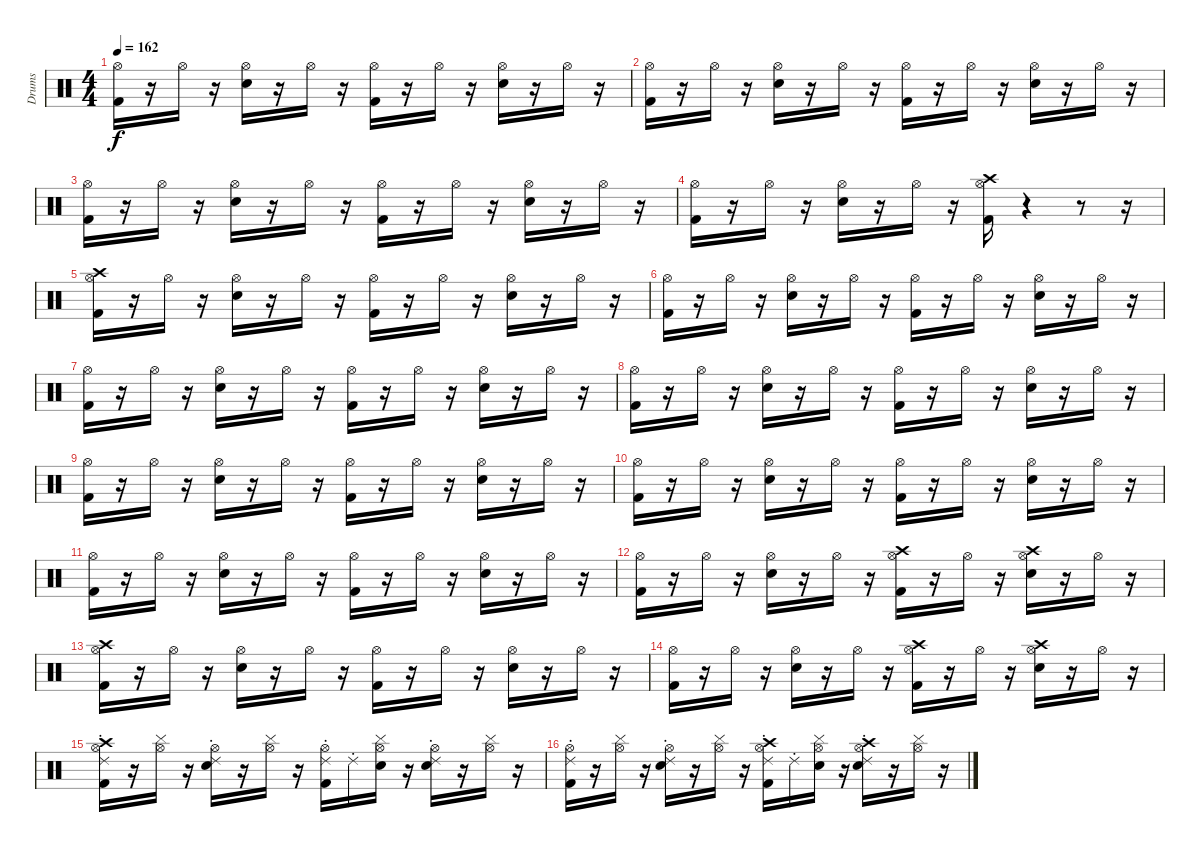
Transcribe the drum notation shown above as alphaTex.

\track ("Drums" "Drums") {instrument percussion}
\staff {score}
\articulation defaults
\ts (4 4)
\tempo 162
\clef neutral
\ks c
("Kick (hit) 2" "Hi-Hat (open)").16{dy f} r.16 "Hi-Hat (open)".16 r.16 ("Electric Snare (hit)" "Hi-Hat (open)").16 r.16 "Hi-Hat (open)".16 r.16 ("Hi-Hat (open)" "Kick (hit) 2").16 r.16 "Hi-Hat (open)".16 r.16 ("Hi-Hat (open)" "Electric Snare (hit)").16 r.16 "Hi-Hat (open)".16 r.16 |
("Kick (hit) 2" "Hi-Hat (open)").16 r.16 "Hi-Hat (open)".16 r.16 ("Electric Snare (hit)" "Hi-Hat (open)").16 r.16 "Hi-Hat (open)".16 r.16 ("Hi-Hat (open)" "Kick (hit) 2").16 r.16 "Hi-Hat (open)".16 r.16 ("Hi-Hat (open)" "Electric Snare (hit)").16 r.16 "Hi-Hat (open)".16 r.16 |
("Kick (hit) 2" "Hi-Hat (open)").16 r.16 "Hi-Hat (open)".16 r.16 ("Electric Snare (hit)" "Hi-Hat (open)").16 r.16 "Hi-Hat (open)".16 r.16 ("Hi-Hat (open)" "Kick (hit) 2").16 r.16 "Hi-Hat (open)".16 r.16 ("Hi-Hat (open)" "Electric Snare (hit)").16 r.16 "Hi-Hat (open)".16 r.16 |
("Kick (hit) 2" "Hi-Hat (open)").16 r.16 "Hi-Hat (open)".16 r.16 ("Electric Snare (hit)" "Hi-Hat (open)").16 r.16 "Hi-Hat (open)".16 r.16 ("Hi-Hat (open)" "Kick (hit) 2" "Crash high (hit)").16 r.4 r.8 r.16 |
("Kick (hit) 2" "Hi-Hat (open)" "Crash high (hit)").16 r.16 "Hi-Hat (open)".16 r.16 ("Electric Snare (hit)" "Hi-Hat (open)").16 r.16 "Hi-Hat (open)".16 r.16 ("Hi-Hat (open)" "Kick (hit) 2").16 r.16 "Hi-Hat (open)".16 r.16 ("Hi-Hat (open)" "Electric Snare (hit)").16 r.16 "Hi-Hat (open)".16 r.16 |
("Kick (hit) 2" "Hi-Hat (open)").16 r.16 "Hi-Hat (open)".16 r.16 ("Electric Snare (hit)" "Hi-Hat (open)").16 r.16 "Hi-Hat (open)".16 r.16 ("Hi-Hat (open)" "Kick (hit) 2").16 r.16 "Hi-Hat (open)".16 r.16 ("Hi-Hat (open)" "Electric Snare (hit)").16 r.16 "Hi-Hat (open)".16 r.16 |
("Kick (hit) 2" "Hi-Hat (open)").16 r.16 "Hi-Hat (open)".16 r.16 ("Electric Snare (hit)" "Hi-Hat (open)").16 r.16 "Hi-Hat (open)".16 r.16 ("Hi-Hat (open)" "Kick (hit) 2").16 r.16 "Hi-Hat (open)".16 r.16 ("Hi-Hat (open)" "Electric Snare (hit)").16 r.16 "Hi-Hat (open)".16 r.16 |
("Kick (hit) 2" "Hi-Hat (open)").16 r.16 "Hi-Hat (open)".16 r.16 ("Electric Snare (hit)" "Hi-Hat (open)").16 r.16 "Hi-Hat (open)".16 r.16 ("Hi-Hat (open)" "Kick (hit) 2").16 r.16 "Hi-Hat (open)".16 r.16 ("Hi-Hat (open)" "Electric Snare (hit)").16 r.16 "Hi-Hat (open)".16 r.16 |
("Kick (hit) 2" "Hi-Hat (open)").16 r.16 "Hi-Hat (open)".16 r.16 ("Electric Snare (hit)" "Hi-Hat (open)").16 r.16 "Hi-Hat (open)".16 r.16 ("Hi-Hat (open)" "Kick (hit) 2").16 r.16 "Hi-Hat (open)".16 r.16 ("Hi-Hat (open)" "Electric Snare (hit)").16 r.16 "Hi-Hat (open)".16 r.16 |
("Kick (hit) 2" "Hi-Hat (open)").16 r.16 "Hi-Hat (open)".16 r.16 ("Electric Snare (hit)" "Hi-Hat (open)").16 r.16 "Hi-Hat (open)".16 r.16 ("Hi-Hat (open)" "Kick (hit) 2").16 r.16 "Hi-Hat (open)".16 r.16 ("Hi-Hat (open)" "Electric Snare (hit)").16 r.16 "Hi-Hat (open)".16 r.16 |
("Kick (hit) 2" "Hi-Hat (open)").16 r.16 "Hi-Hat (open)".16 r.16 ("Electric Snare (hit)" "Hi-Hat (open)").16 r.16 "Hi-Hat (open)".16 r.16 ("Hi-Hat (open)" "Kick (hit) 2").16 r.16 "Hi-Hat (open)".16 r.16 ("Hi-Hat (open)" "Electric Snare (hit)").16 r.16 "Hi-Hat (open)".16 r.16 |
("Kick (hit) 2" "Hi-Hat (open)").16 r.16 "Hi-Hat (open)".16 r.16 ("Electric Snare (hit)" "Hi-Hat (open)").16 r.16 "Hi-Hat (open)".16 r.16 ("Hi-Hat (open)" "Kick (hit) 2" "Crash high (hit)").16 r.16 "Hi-Hat (open)".16 r.16 ("Hi-Hat (open)" "Electric Snare (hit)" "Crash high (hit)").16 r.16 "Hi-Hat (open)".16 r.16 |
("Kick (hit) 2" "Hi-Hat (open)" "Crash high (hit)").16 r.16 "Hi-Hat (open)".16 r.16 ("Electric Snare (hit)" "Hi-Hat (open)").16 r.16 "Hi-Hat (open)".16 r.16 ("Hi-Hat (open)" "Kick (hit) 2").16 r.16 "Hi-Hat (open)".16 r.16 ("Hi-Hat (open)" "Electric Snare (hit)").16 r.16 "Hi-Hat (open)".16 r.16 |
("Kick (hit) 2" "Hi-Hat (open)").16 r.16 "Hi-Hat (open)".16 r.16 ("Electric Snare (hit)" "Hi-Hat (open)").16 r.16 "Hi-Hat (open)".16 r.16 ("Hi-Hat (open)" "Kick (hit) 2" "Crash high (hit)").16 r.16 "Hi-Hat (open)".16 r.16 ("Hi-Hat (open)" "Electric Snare (hit)" "Crash high (hit)").16 r.16 "Hi-Hat (open)".16 r.16 |
("Kick (hit) 2" "Hi-Hat (open)" "Ride (choke) 2" "Crash high (hit)").16 r.16 ("Hi-Hat (open)" "Cymbal (hit)").16 r.16 ("Electric Snare (hit)" "Hi-Hat (open)" "Ride (choke) 2").16 r.16 ("Hi-Hat (open)" "Cymbal (hit)").16 r.16 ("Hi-Hat (open)" "Kick (hit) 2" "Ride (choke) 2").16 "Ride (choke) 2".16 ("Snare (hit)" "Hi-Hat (open)" "Cymbal (hit)").16 r.16 ("Hi-Hat (open)" "Electric Snare (hit)" "Ride (choke) 2").16 r.16 ("Hi-Hat (open)" "Cymbal (hit)").16 r.16 |
("Kick (hit) 2" "Hi-Hat (open)" "Ride (choke) 2").16 r.16 ("Hi-Hat (open)" "Cymbal (hit)").16 r.16 ("Electric Snare (hit)" "Hi-Hat (open)" "Ride (choke) 2").16 r.16 ("Hi-Hat (open)" "Cymbal (hit)").16 r.16 ("Hi-Hat (open)" "Kick (hit) 2" "Ride (choke) 2" "Crash high (hit)").16 "Ride (choke) 2".16 ("Snare (hit)" "Hi-Hat (open)" "Cymbal (hit)").16 r.16 ("Hi-Hat (open)" "Electric Snare (hit)" "Ride (choke) 2" "Crash high (hit)").16 r.16 ("Hi-Hat (open)" "Cymbal (hit)").16 r.16
